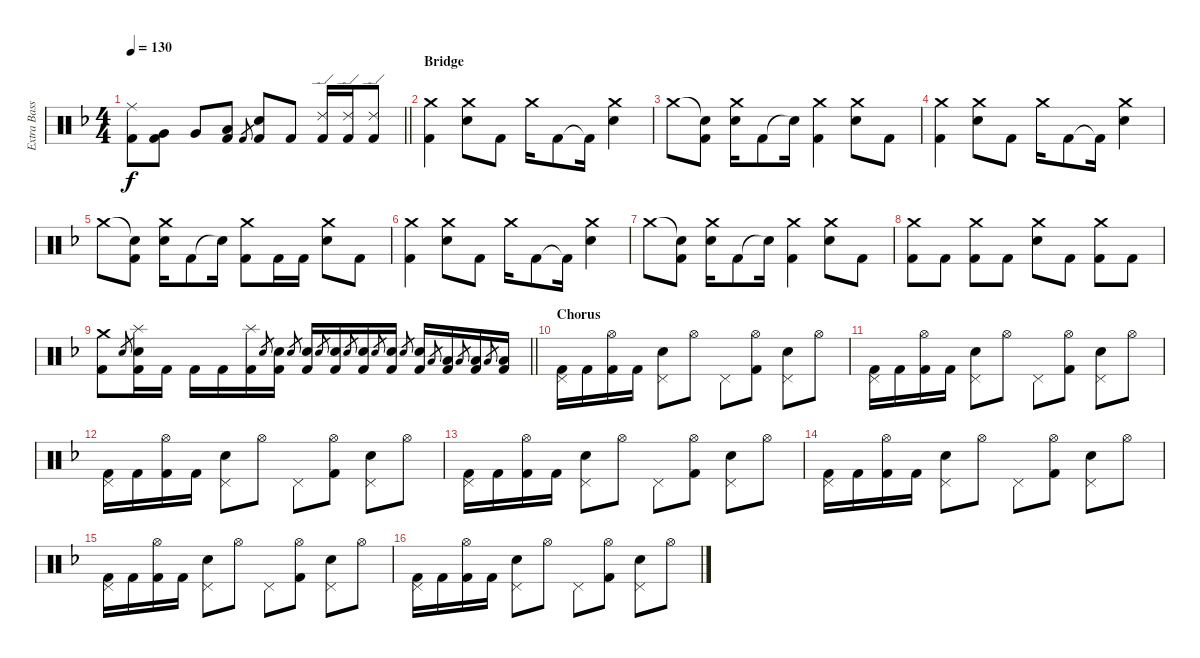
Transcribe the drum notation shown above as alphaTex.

\track ("Extra BassDrum" "Extra Bass") {instrument percussion}
\staff {score}
\articulation defaults
\ts (4 4)
\tempo 130
\clef neutral
\barLineRight lightlight
\ks f
("Ride (middle)" "Kick (hit) 2").8{dy f} ("Very Low Tom (hit)" "Kick (hit) 2").8 "Very Low Tom (hit)".8 ("Low Floor Tom (hit)" "Kick (hit) 2").8 "Kick (hit) 2".8{gr} ("Snare (hit) 2" "Kick (hit) 2").8 "Kick (hit) 2".8 ("Ride (edge) 2" "Kick (hit) 2").16 ("Ride (edge) 2" "Kick (hit) 2").16 ("Ride (edge) 2" "Kick (hit) 2").8 |
\section ("" "Bridge")
("Crash medium (hit)" "Kick (hit) 2").4 ("Crash medium (hit)" "Snare (hit) 2").8 "Kick (hit) 2".8 "Crash medium (hit)".16 "Kick (hit) 2".8 "Kick (hit) 2"{t}.16 ("Crash medium (hit)" "Snare (hit) 2").4 |
"Crash medium (hit)".8 ("Snare (hit)"{t} "Kick (hit) 2").8 ("Crash medium (hit)" "Snare (hit) 2").16 "Kick (hit) 2".8 "Snare (hit)"{t}.16 ("Crash medium (hit)" "Kick (hit) 2").4 ("Crash medium (hit)" "Snare (hit) 2").8 "Kick (hit) 2".8 |
("Crash medium (hit)" "Kick (hit) 2").4 ("Crash medium (hit)" "Snare (hit) 2").8 "Kick (hit) 2".8 "Crash medium (hit)".16 "Kick (hit) 2".8 "Kick (hit) 2"{t}.16 ("Crash medium (hit)" "Snare (hit) 2").4 |
"Crash medium (hit)".8 ("Snare (hit)"{t} "Kick (hit) 2").8 ("Crash medium (hit)" "Snare (hit) 2").16 "Kick (hit) 2".8 "Snare (hit)"{t}.16 ("Crash medium (hit)" "Kick (hit) 2").8 "Kick (hit) 2".16 "Kick (hit) 2".16 ("Crash medium (hit)" "Snare (hit) 2").8 "Kick (hit) 2".8 |
("Crash medium (hit)" "Kick (hit) 2").4 ("Crash medium (hit)" "Snare (hit) 2").8 "Kick (hit) 2".8 "Crash medium (hit)".16 "Kick (hit) 2".8 "Kick (hit) 2"{t}.16 ("Crash medium (hit)" "Snare (hit) 2").4 |
"Crash medium (hit)".8 ("Snare (hit)"{t} "Kick (hit) 2").8 ("Crash medium (hit)" "Snare (hit) 2").16 "Kick (hit) 2".8 "Snare (hit)"{t}.16 ("Crash medium (hit)" "Kick (hit) 2").4 ("Crash medium (hit)" "Snare (hit) 2").8 "Kick (hit) 2".8 |
("Crash medium (hit)" "Kick (hit) 2").8 "Kick (hit) 2".8 ("Crash medium (hit)" "Kick (hit) 2").8 "Kick (hit) 2".8 ("Crash medium (hit)" "Snare (hit) 2").8 "Kick (hit) 2".8 ("Crash medium (hit)" "Kick (hit) 2").8 "Kick (hit) 2".8 |
\barLineRight lightlight
("Crash medium (hit)" "Kick (hit) 2").8 "Snare (hit) 2".8{gr} ("Splash (hit)" "Snare (hit) 2" "Kick (hit) 2").16 "Kick (hit) 2".16 "Kick (hit) 2".16 "Kick (hit) 2".16 ("Splash (hit)" "Kick (hit) 2").16 "Snare (hit) 2".8{gr} ("Snare (hit) 2" "Kick (hit) 2").16 "Snare (hit) 2".8{gr} ("Snare (hit) 2" "Kick (hit) 2").16 "Snare (hit) 2".8{gr} ("Snare (hit) 2" "Kick (hit) 2").16 "Snare (hit) 2".8{gr} ("Snare (hit) 2" "Kick (hit) 2").16 "Snare (hit) 2".8{gr} ("Snare (hit) 2" "Kick (hit) 2").16 "Snare (hit) 2".8{gr} ("Snare (hit) 2" "Kick (hit) 2").16 "Low Tom (hit)".8{gr} ("Low Tom (hit)" "Kick (hit) 2").16 "Low Tom (hit)".8{gr} ("Low Tom (hit)" "Kick (hit) 2").16 "Low Tom (hit)".8{gr} ("Low Tom (hit)" "Kick (hit) 2").16 |
\section ("" "Chorus")
("Pedal Hi-Hat (hit)" "Kick (hit) 2").16 "Kick (hit) 2".16 ("Hi-Hat (open)" "Kick (hit) 2").16 "Kick (hit) 2".16 ("Pedal Hi-Hat (hit)" "Snare (hit) 2").8 "Hi-Hat (open)".8 "Pedal Hi-Hat (hit)".8 ("Hi-Hat (open)" "Kick (hit) 2").8 ("Pedal Hi-Hat (hit)" "Snare (hit) 2").8 "Hi-Hat (open)".8 |
("Pedal Hi-Hat (hit)" "Kick (hit) 2").16 "Kick (hit) 2".16 ("Hi-Hat (open)" "Kick (hit) 2").16 "Kick (hit) 2".16 ("Pedal Hi-Hat (hit)" "Snare (hit) 2").8 "Hi-Hat (open)".8 "Pedal Hi-Hat (hit)".8 ("Hi-Hat (open)" "Kick (hit) 2").8 ("Pedal Hi-Hat (hit)" "Snare (hit) 2").8 "Hi-Hat (open)".8 |
("Pedal Hi-Hat (hit)" "Kick (hit) 2").16 "Kick (hit) 2".16 ("Hi-Hat (open)" "Kick (hit) 2").16 "Kick (hit) 2".16 ("Pedal Hi-Hat (hit)" "Snare (hit) 2").8 "Hi-Hat (open)".8 "Pedal Hi-Hat (hit)".8 ("Hi-Hat (open)" "Kick (hit) 2").8 ("Pedal Hi-Hat (hit)" "Snare (hit) 2").8 "Hi-Hat (open)".8 |
("Pedal Hi-Hat (hit)" "Kick (hit) 2").16 "Kick (hit) 2".16 ("Hi-Hat (open)" "Kick (hit) 2").16 "Kick (hit) 2".16 ("Pedal Hi-Hat (hit)" "Snare (hit) 2").8 "Hi-Hat (open)".8 "Pedal Hi-Hat (hit)".8 ("Hi-Hat (open)" "Kick (hit) 2").8 ("Pedal Hi-Hat (hit)" "Snare (hit) 2").8 "Hi-Hat (open)".8 |
("Pedal Hi-Hat (hit)" "Kick (hit) 2").16 "Kick (hit) 2".16 ("Hi-Hat (open)" "Kick (hit) 2").16 "Kick (hit) 2".16 ("Pedal Hi-Hat (hit)" "Snare (hit) 2").8 "Hi-Hat (open)".8 "Pedal Hi-Hat (hit)".8 ("Hi-Hat (open)" "Kick (hit) 2").8 ("Pedal Hi-Hat (hit)" "Snare (hit) 2").8 "Hi-Hat (open)".8 |
("Pedal Hi-Hat (hit)" "Kick (hit) 2").16 "Kick (hit) 2".16 ("Hi-Hat (open)" "Kick (hit) 2").16 "Kick (hit) 2".16 ("Pedal Hi-Hat (hit)" "Snare (hit) 2").8 "Hi-Hat (open)".8 "Pedal Hi-Hat (hit)".8 ("Hi-Hat (open)" "Kick (hit) 2").8 ("Pedal Hi-Hat (hit)" "Snare (hit) 2").8 "Hi-Hat (open)".8 |
("Pedal Hi-Hat (hit)" "Kick (hit) 2").16 "Kick (hit) 2".16 ("Hi-Hat (open)" "Kick (hit) 2").16 "Kick (hit) 2".16 ("Pedal Hi-Hat (hit)" "Snare (hit) 2").8 "Hi-Hat (open)".8 "Pedal Hi-Hat (hit)".8 ("Hi-Hat (open)" "Kick (hit) 2").8 ("Pedal Hi-Hat (hit)" "Snare (hit) 2").8 "Hi-Hat (open)".8
